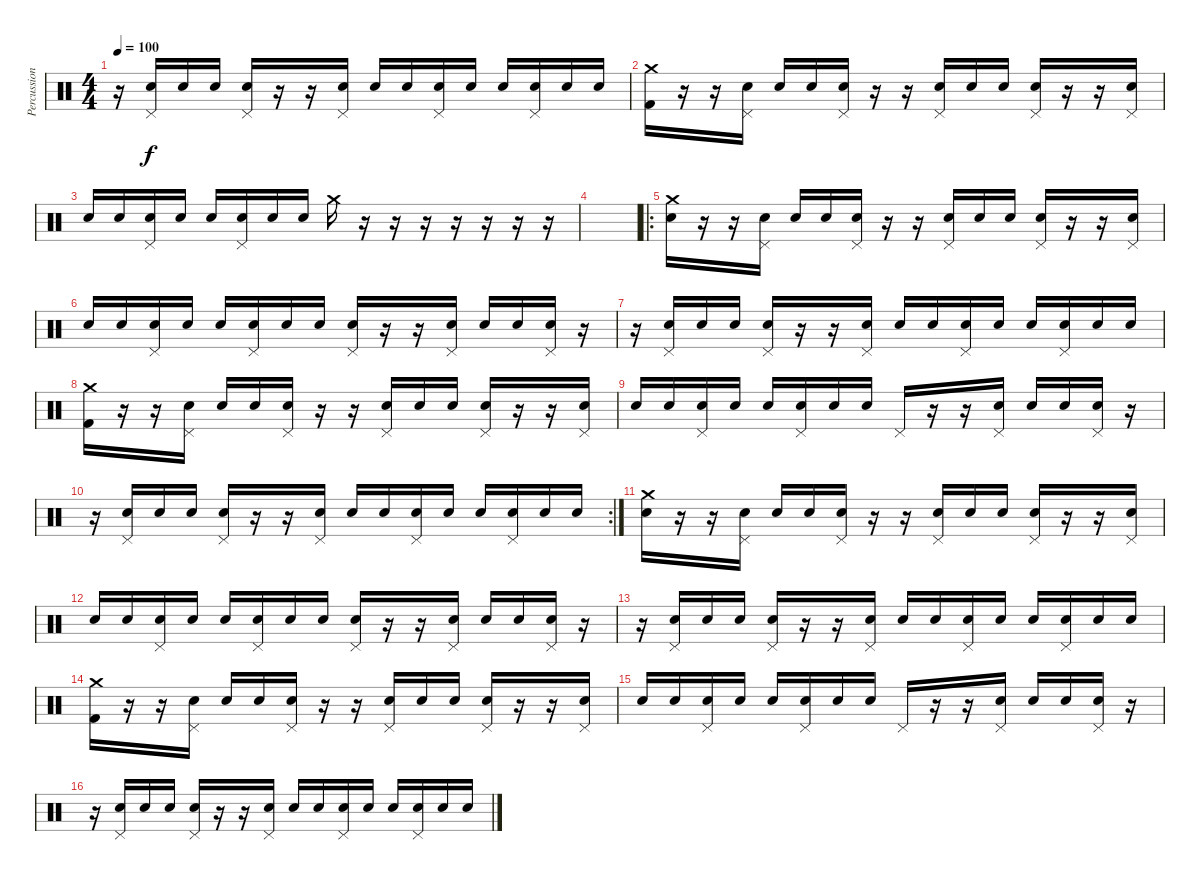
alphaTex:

\track ("Percussion" "Percussion") {instrument percussion}
\staff {score}
\articulation defaults
\ts (4 4)
\tempo 100
\clef neutral
\ks c
r.16{dy f} ("Pedal Hi-Hat (hit)" "Snare (hit) 2").16 "Snare (hit) 2".16 "Snare (hit) 2".16 ("Pedal Hi-Hat (hit)" "Snare (hit) 2").16 r.16 r.16 ("Pedal Hi-Hat (hit)" "Snare (hit) 2").16 "Snare (hit) 2".16 "Snare (hit) 2".16 ("Pedal Hi-Hat (hit)" "Snare (hit) 2").16 "Snare (hit) 2".16 "Snare (hit) 2".16 ("Pedal Hi-Hat (hit)" "Snare (hit) 2").16 "Snare (hit) 2".16 "Snare (hit) 2".16 |
("Crash medium (hit)" "Kick (hit) 2").16 r.16 r.16 ("Pedal Hi-Hat (hit)" "Snare (hit) 2").16 "Snare (hit) 2".16 "Snare (hit) 2".16 ("Pedal Hi-Hat (hit)" "Snare (hit) 2").16 r.16 r.16 ("Pedal Hi-Hat (hit)" "Snare (hit) 2").16 "Snare (hit) 2".16 "Snare (hit) 2".16 ("Pedal Hi-Hat (hit)" "Snare (hit) 2").16 r.16 r.16 ("Pedal Hi-Hat (hit)" "Snare (hit) 2").16 |
"Snare (hit) 2".16 "Snare (hit) 2".16 ("Pedal Hi-Hat (hit)" "Snare (hit) 2").16 "Snare (hit) 2".16 "Snare (hit) 2".16 ("Pedal Hi-Hat (hit)" "Snare (hit) 2").16 "Snare (hit) 2".16 "Snare (hit) 2".16 "Crash medium (hit)".16 r.16 r.16 r.16 r.16 r.16 r.16 r.16 |
|
\ro
("Crash medium (hit)" "Snare (hit) 2").16 r.16 r.16 ("Pedal Hi-Hat (hit)" "Snare (hit) 2").16 "Snare (hit) 2".16 "Snare (hit) 2".16 ("Pedal Hi-Hat (hit)" "Snare (hit) 2").16 r.16 r.16 ("Pedal Hi-Hat (hit)" "Snare (hit) 2").16 "Snare (hit) 2".16 "Snare (hit) 2".16 ("Pedal Hi-Hat (hit)" "Snare (hit) 2").16 r.16 r.16 ("Pedal Hi-Hat (hit)" "Snare (hit) 2").16 |
"Snare (hit) 2".16 "Snare (hit) 2".16 ("Pedal Hi-Hat (hit)" "Snare (hit) 2").16 "Snare (hit) 2".16 "Snare (hit) 2".16 ("Pedal Hi-Hat (hit)" "Snare (hit) 2").16 "Snare (hit) 2".16 "Snare (hit) 2".16 ("Pedal Hi-Hat (hit)" "Snare (hit) 2").16 r.16 r.16 ("Pedal Hi-Hat (hit)" "Snare (hit) 2").16 "Snare (hit) 2".16 "Snare (hit) 2".16 ("Pedal Hi-Hat (hit)" "Snare (hit) 2").16 r.16 |
r.16 ("Pedal Hi-Hat (hit)" "Snare (hit) 2").16 "Snare (hit) 2".16 "Snare (hit) 2".16 ("Pedal Hi-Hat (hit)" "Snare (hit) 2").16 r.16 r.16 ("Pedal Hi-Hat (hit)" "Snare (hit) 2").16 "Snare (hit) 2".16 "Snare (hit) 2".16 ("Pedal Hi-Hat (hit)" "Snare (hit) 2").16 "Snare (hit) 2".16 "Snare (hit) 2".16 ("Pedal Hi-Hat (hit)" "Snare (hit) 2").16 "Snare (hit) 2".16 "Snare (hit) 2".16 |
("Crash medium (hit)" "Kick (hit) 2").16 r.16 r.16 ("Pedal Hi-Hat (hit)" "Snare (hit) 2").16 "Snare (hit) 2".16 "Snare (hit) 2".16 ("Pedal Hi-Hat (hit)" "Snare (hit) 2").16 r.16 r.16 ("Pedal Hi-Hat (hit)" "Snare (hit) 2").16 "Snare (hit) 2".16 "Snare (hit) 2".16 ("Pedal Hi-Hat (hit)" "Snare (hit) 2").16 r.16 r.16 ("Pedal Hi-Hat (hit)" "Snare (hit) 2").16 |
"Snare (hit) 2".16 "Snare (hit) 2".16 ("Pedal Hi-Hat (hit)" "Snare (hit) 2").16 "Snare (hit) 2".16 "Snare (hit) 2".16 ("Pedal Hi-Hat (hit)" "Snare (hit) 2").16 "Snare (hit) 2".16 "Snare (hit) 2".16 "Pedal Hi-Hat (hit)".16 r.16 r.16 ("Pedal Hi-Hat (hit)" "Snare (hit) 2").16 "Snare (hit) 2".16 "Snare (hit) 2".16 ("Pedal Hi-Hat (hit)" "Snare (hit) 2").16 r.16 |
\rc 2
r.16 ("Pedal Hi-Hat (hit)" "Snare (hit) 2").16 "Snare (hit) 2".16 "Snare (hit) 2".16 ("Pedal Hi-Hat (hit)" "Snare (hit) 2").16 r.16 r.16 ("Pedal Hi-Hat (hit)" "Snare (hit) 2").16 "Snare (hit) 2".16 "Snare (hit) 2".16 ("Pedal Hi-Hat (hit)" "Snare (hit) 2").16 "Snare (hit) 2".16 "Snare (hit) 2".16 ("Pedal Hi-Hat (hit)" "Snare (hit) 2").16 "Snare (hit) 2".16 "Snare (hit) 2".16 |
("Crash medium (hit)" "Snare (hit) 2").16 r.16 r.16 ("Pedal Hi-Hat (hit)" "Snare (hit) 2").16 "Snare (hit) 2".16 "Snare (hit) 2".16 ("Pedal Hi-Hat (hit)" "Snare (hit) 2").16 r.16 r.16 ("Pedal Hi-Hat (hit)" "Snare (hit) 2").16 "Snare (hit) 2".16 "Snare (hit) 2".16 ("Pedal Hi-Hat (hit)" "Snare (hit) 2").16 r.16 r.16 ("Pedal Hi-Hat (hit)" "Snare (hit) 2").16 |
"Snare (hit) 2".16 "Snare (hit) 2".16 ("Pedal Hi-Hat (hit)" "Snare (hit) 2").16 "Snare (hit) 2".16 "Snare (hit) 2".16 ("Pedal Hi-Hat (hit)" "Snare (hit) 2").16 "Snare (hit) 2".16 "Snare (hit) 2".16 ("Pedal Hi-Hat (hit)" "Snare (hit) 2").16 r.16 r.16 ("Pedal Hi-Hat (hit)" "Snare (hit) 2").16 "Snare (hit) 2".16 "Snare (hit) 2".16 ("Pedal Hi-Hat (hit)" "Snare (hit) 2").16 r.16 |
r.16 ("Pedal Hi-Hat (hit)" "Snare (hit) 2").16 "Snare (hit) 2".16 "Snare (hit) 2".16 ("Pedal Hi-Hat (hit)" "Snare (hit) 2").16 r.16 r.16 ("Pedal Hi-Hat (hit)" "Snare (hit) 2").16 "Snare (hit) 2".16 "Snare (hit) 2".16 ("Pedal Hi-Hat (hit)" "Snare (hit) 2").16 "Snare (hit) 2".16 "Snare (hit) 2".16 ("Pedal Hi-Hat (hit)" "Snare (hit) 2").16 "Snare (hit) 2".16 "Snare (hit) 2".16 |
("Crash medium (hit)" "Kick (hit) 2").16 r.16 r.16 ("Pedal Hi-Hat (hit)" "Snare (hit) 2").16 "Snare (hit) 2".16 "Snare (hit) 2".16 ("Pedal Hi-Hat (hit)" "Snare (hit) 2").16 r.16 r.16 ("Pedal Hi-Hat (hit)" "Snare (hit) 2").16 "Snare (hit) 2".16 "Snare (hit) 2".16 ("Pedal Hi-Hat (hit)" "Snare (hit) 2").16 r.16 r.16 ("Pedal Hi-Hat (hit)" "Snare (hit) 2").16 |
"Snare (hit) 2".16 "Snare (hit) 2".16 ("Pedal Hi-Hat (hit)" "Snare (hit) 2").16 "Snare (hit) 2".16 "Snare (hit) 2".16 ("Pedal Hi-Hat (hit)" "Snare (hit) 2").16 "Snare (hit) 2".16 "Snare (hit) 2".16 "Pedal Hi-Hat (hit)".16 r.16 r.16 ("Pedal Hi-Hat (hit)" "Snare (hit) 2").16 "Snare (hit) 2".16 "Snare (hit) 2".16 ("Pedal Hi-Hat (hit)" "Snare (hit) 2").16 r.16 |
r.16 ("Pedal Hi-Hat (hit)" "Snare (hit) 2").16 "Snare (hit) 2".16 "Snare (hit) 2".16 ("Pedal Hi-Hat (hit)" "Snare (hit) 2").16 r.16 r.16 ("Pedal Hi-Hat (hit)" "Snare (hit) 2").16 "Snare (hit) 2".16 "Snare (hit) 2".16 ("Pedal Hi-Hat (hit)" "Snare (hit) 2").16 "Snare (hit) 2".16 "Snare (hit) 2".16 ("Pedal Hi-Hat (hit)" "Snare (hit) 2").16 "Snare (hit) 2".16 "Snare (hit) 2".16
